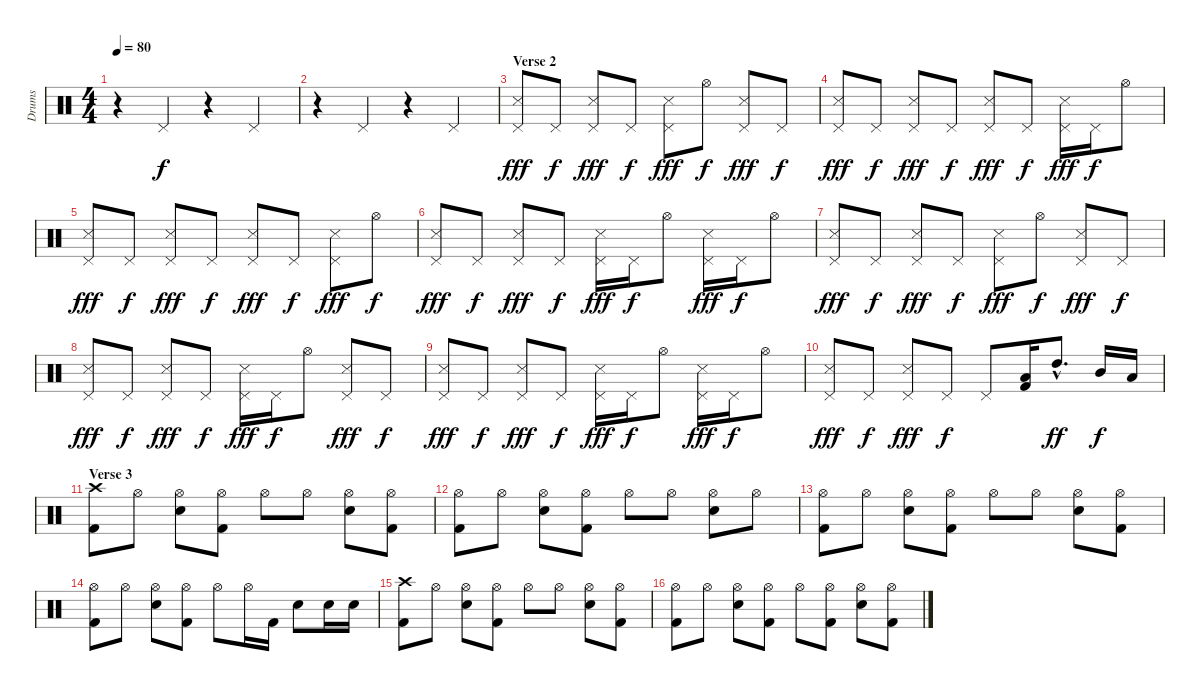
\track ("Drums" "Drums") {instrument percussion}
\staff {score}
\articulation defaults
\ts (4 4)
\tempo 80
\clef neutral
\ks c
r.4{dy f} "Pedal Hi-Hat (hit)".4 r.4 "Pedal Hi-Hat (hit)".4 |
r.4 "Pedal Hi-Hat (hit)".4 r.4 "Pedal Hi-Hat (hit)".4 |
\section ("" "Verse 2")
("Snare (side stick) 3" "Pedal Hi-Hat (hit)").8{dy fff} "Pedal Hi-Hat (hit)".8{dy f} ("Snare (side stick) 3" "Pedal Hi-Hat (hit)").8{dy fff} "Pedal Hi-Hat (hit)".8{dy f} ("Snare (side stick) 3" "Pedal Hi-Hat (hit)").8{dy fff} "Hi-Hat (open)".8{dy f} ("Snare (side stick) 3" "Pedal Hi-Hat (hit)").8{dy fff} "Pedal Hi-Hat (hit)".8{dy f} |
("Snare (side stick) 3" "Pedal Hi-Hat (hit)").8{dy fff} "Pedal Hi-Hat (hit)".8{dy f} ("Snare (side stick) 3" "Pedal Hi-Hat (hit)").8{dy fff} "Pedal Hi-Hat (hit)".8{dy f} ("Snare (side stick) 3" "Pedal Hi-Hat (hit)").8{dy fff} "Pedal Hi-Hat (hit)".8{dy f} ("Snare (side stick) 3" "Pedal Hi-Hat (hit)").16{dy fff} "Pedal Hi-Hat (hit)".16{dy f} "Hi-Hat (open)".8 |
("Snare (side stick) 3" "Pedal Hi-Hat (hit)").8{dy fff} "Pedal Hi-Hat (hit)".8{dy f} ("Snare (side stick) 3" "Pedal Hi-Hat (hit)").8{dy fff} "Pedal Hi-Hat (hit)".8{dy f} ("Snare (side stick) 3" "Pedal Hi-Hat (hit)").8{dy fff} "Pedal Hi-Hat (hit)".8{dy f} ("Snare (side stick) 3" "Pedal Hi-Hat (hit)").8{dy fff} "Hi-Hat (open)".8{dy f} |
("Snare (side stick) 3" "Pedal Hi-Hat (hit)").8{dy fff} "Pedal Hi-Hat (hit)".8{dy f} ("Snare (side stick) 3" "Pedal Hi-Hat (hit)").8{dy fff} "Pedal Hi-Hat (hit)".8{dy f} ("Snare (side stick) 3" "Pedal Hi-Hat (hit)").16{dy fff} "Pedal Hi-Hat (hit)".16{dy f} "Hi-Hat (open)".8 ("Snare (side stick) 3" "Pedal Hi-Hat (hit)").16{dy fff} "Pedal Hi-Hat (hit)".16{dy f} "Hi-Hat (open)".8 |
("Snare (side stick) 3" "Pedal Hi-Hat (hit)").8{dy fff} "Pedal Hi-Hat (hit)".8{dy f} ("Snare (side stick) 3" "Pedal Hi-Hat (hit)").8{dy fff} "Pedal Hi-Hat (hit)".8{dy f} ("Snare (side stick) 3" "Pedal Hi-Hat (hit)").8{dy fff} "Hi-Hat (open)".8{dy f} ("Snare (side stick) 3" "Pedal Hi-Hat (hit)").8{dy fff} "Pedal Hi-Hat (hit)".8{dy f} |
("Snare (side stick) 3" "Pedal Hi-Hat (hit)").8{dy fff} "Pedal Hi-Hat (hit)".8{dy f} ("Snare (side stick) 3" "Pedal Hi-Hat (hit)").8{dy fff} "Pedal Hi-Hat (hit)".8{dy f} ("Snare (side stick) 3" "Pedal Hi-Hat (hit)").16{dy fff} "Pedal Hi-Hat (hit)".16{dy f} "Hi-Hat (open)".8 ("Snare (side stick) 3" "Pedal Hi-Hat (hit)").8{dy fff} "Pedal Hi-Hat (hit)".8{dy f} |
("Snare (side stick) 3" "Pedal Hi-Hat (hit)").8{dy fff} "Pedal Hi-Hat (hit)".8{dy f} ("Snare (side stick) 3" "Pedal Hi-Hat (hit)").8{dy fff} "Pedal Hi-Hat (hit)".8{dy f} ("Snare (side stick) 3" "Pedal Hi-Hat (hit)").16{dy fff} "Pedal Hi-Hat (hit)".16{dy f} "Hi-Hat (open)".8 ("Snare (side stick) 3" "Pedal Hi-Hat (hit)").16{dy fff} "Pedal Hi-Hat (hit)".16{dy f} "Hi-Hat (open)".8 |
("Snare (side stick) 3" "Pedal Hi-Hat (hit)").8{dy fff} "Pedal Hi-Hat (hit)".8{dy f} ("Snare (side stick) 3" "Pedal Hi-Hat (hit)").8{dy fff} "Pedal Hi-Hat (hit)".8{dy f} "Pedal Hi-Hat (hit)".8 ("Low Floor Tom (hit)" "Kick (hit) 2").16 "High Tom (hit)"{hac}.8{d dy ff} "Mid Tom (hit)".16{dy f} "Low Tom (hit)".16 |
\section ("" "Verse 3")
("Crash high (hit)" "Kick (hit) 2").8 "Hi-Hat (open)".8 ("Hi-Hat (open)" "Snare (hit) 2").8 ("Hi-Hat (open)" "Kick (hit) 2").8 "Hi-Hat (open)".8 "Hi-Hat (open)".8 ("Hi-Hat (open)" "Electric Snare (hit)").8 ("Hi-Hat (open)" "Kick (hit) 2").8 |
("Hi-Hat (open)" "Kick (hit) 2").8 "Hi-Hat (open)".8 ("Hi-Hat (open)" "Electric Snare (hit)").8 ("Hi-Hat (open)" "Kick (hit) 2").8 "Hi-Hat (open)".8 "Hi-Hat (open)".8 ("Hi-Hat (open)" "Electric Snare (hit)").8 "Hi-Hat (open)".8 |
("Hi-Hat (open)" "Kick (hit) 2").8 "Hi-Hat (open)".8 ("Hi-Hat (open)" "Electric Snare (hit)").8 ("Hi-Hat (open)" "Kick (hit) 2").8 "Hi-Hat (open)".8 "Hi-Hat (open)".8 ("Hi-Hat (open)" "Electric Snare (hit)").8 ("Hi-Hat (open)" "Kick (hit) 2").8 |
("Hi-Hat (open)" "Kick (hit) 2").8 "Hi-Hat (open)".8 ("Hi-Hat (open)" "Electric Snare (hit)").8 ("Hi-Hat (open)" "Kick (hit) 2").8 "Hi-Hat (open)".8 "Hi-Hat (open)".16 "Kick (hit) 2".16 "Electric Snare (hit)".8 "Electric Snare (hit)".16 "Electric Snare (hit)".16 |
("Crash high (hit)" "Kick (hit) 2").8 "Hi-Hat (open)".8 ("Hi-Hat (open)" "Snare (hit) 2").8 ("Hi-Hat (open)" "Kick (hit) 2").8 "Hi-Hat (open)".8 "Hi-Hat (open)".8 ("Hi-Hat (open)" "Electric Snare (hit)").8 ("Hi-Hat (open)" "Kick (hit) 2").8 |
("Hi-Hat (open)" "Kick (hit) 2").8 "Hi-Hat (open)".8 ("Hi-Hat (open)" "Electric Snare (hit)").8 ("Hi-Hat (open)" "Kick (hit) 2").8 "Hi-Hat (open)".8 ("Hi-Hat (open)" "Kick (hit) 2").8 ("Hi-Hat (open)" "Electric Snare (hit)").8 ("Hi-Hat (open)" "Kick (hit) 2").8
